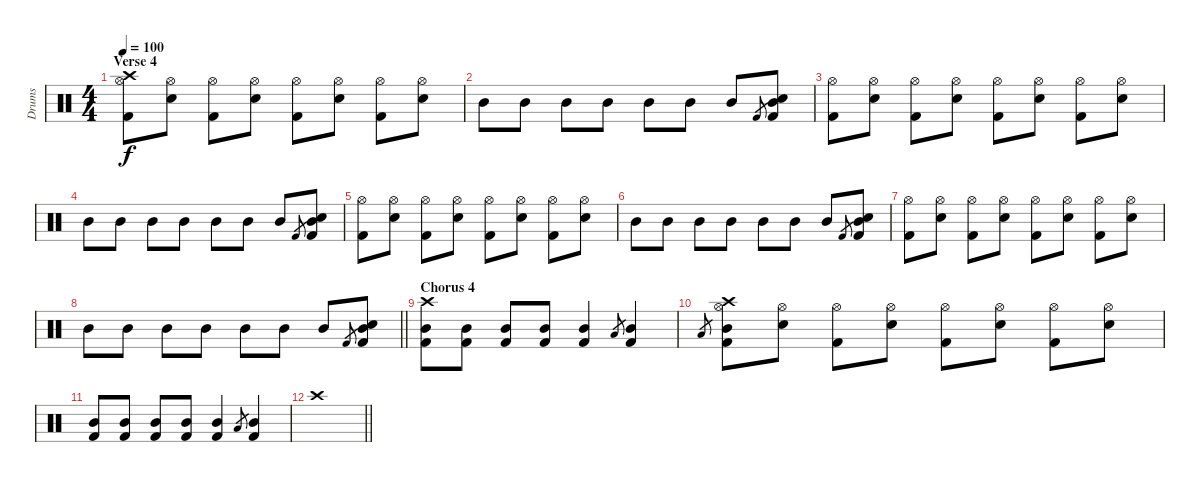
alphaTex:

\track ("Drums" "Drums") {instrument percussion}
\staff {score}
\articulation defaults
\ts (4 4)
\section ("" "Verse 4")
\tempo 100
\clef neutral
\ks c
("Crash high (hit)" "Hi-Hat (open)" "Kick (hit) 2").8{dy f} ("Hi-Hat (open)" "Snare (hit) 2").8 ("Hi-Hat (open)" "Kick (hit) 2").8 ("Hi-Hat (open)" "Snare (hit) 2").8 ("Hi-Hat (open)" "Kick (hit) 2").8 ("Hi-Hat (open)" "Snare (hit) 2").8 ("Hi-Hat (open)" "Kick (hit) 2").8 ("Hi-Hat (open)" "Snare (hit) 2").8 |
"Mid Tom (hit)".8 "Mid Tom (hit)".8 "Mid Tom (hit)".8 "Mid Tom (hit)".8 "Mid Tom (hit)".8 "Mid Tom (hit)".8 "Mid Tom (hit)".8 "Kick (hit) 2".8{gr} ("Mid Tom (hit)" "Snare (hit) 2" "Kick (hit) 2").8 |
("Hi-Hat (open)" "Kick (hit) 2").8 ("Hi-Hat (open)" "Snare (hit) 2").8 ("Hi-Hat (open)" "Kick (hit) 2").8 ("Hi-Hat (open)" "Snare (hit) 2").8 ("Hi-Hat (open)" "Kick (hit) 2").8 ("Hi-Hat (open)" "Snare (hit) 2").8 ("Hi-Hat (open)" "Kick (hit) 2").8 ("Hi-Hat (open)" "Snare (hit) 2").8 |
"Mid Tom (hit)".8 "Mid Tom (hit)".8 "Mid Tom (hit)".8 "Mid Tom (hit)".8 "Mid Tom (hit)".8 "Mid Tom (hit)".8 "Mid Tom (hit)".8 "Kick (hit) 2".8{gr} ("Mid Tom (hit)" "Snare (hit) 2" "Kick (hit) 2").8 |
("Hi-Hat (open)" "Kick (hit) 2").8 ("Hi-Hat (open)" "Snare (hit) 2").8 ("Hi-Hat (open)" "Kick (hit) 2").8 ("Hi-Hat (open)" "Snare (hit) 2").8 ("Hi-Hat (open)" "Kick (hit) 2").8 ("Hi-Hat (open)" "Snare (hit) 2").8 ("Hi-Hat (open)" "Kick (hit) 2").8 ("Hi-Hat (open)" "Snare (hit) 2").8 |
"Mid Tom (hit)".8 "Mid Tom (hit)".8 "Mid Tom (hit)".8 "Mid Tom (hit)".8 "Mid Tom (hit)".8 "Mid Tom (hit)".8 "Mid Tom (hit)".8 "Kick (hit) 2".8{gr} ("Mid Tom (hit)" "Snare (hit) 2" "Kick (hit) 2").8 |
("Hi-Hat (open)" "Kick (hit) 2").8 ("Hi-Hat (open)" "Snare (hit) 2").8 ("Hi-Hat (open)" "Kick (hit) 2").8 ("Hi-Hat (open)" "Snare (hit) 2").8 ("Hi-Hat (open)" "Kick (hit) 2").8 ("Hi-Hat (open)" "Snare (hit) 2").8 ("Hi-Hat (open)" "Kick (hit) 2").8 ("Hi-Hat (open)" "Snare (hit) 2").8 |
\barLineRight lightlight "Mid Tom (hit)".8 "Mid Tom (hit)".8 "Mid Tom (hit)".8 "Mid Tom (hit)".8 "Mid Tom (hit)".8 "Mid Tom (hit)".8 "Mid Tom (hit)".8 "Kick (hit) 2".8{gr}
("Mid Tom (hit)" "Snare (hit) 2" "Kick (hit) 2").8 |
\section ("" "Chorus 4")
("Crash high (hit)" "Mid Tom (hit)" "Kick (hit) 2").8 ("Mid Tom (hit)" "Kick (hit) 2").8 ("Mid Tom (hit)" "Kick (hit) 2").8 ("Mid Tom (hit)" "Kick (hit) 2").8 ("Mid Tom (hit)" "Kick (hit) 2").4 "Low Floor Tom (hit)".8{gr} ("Mid Tom (hit)" "Kick (hit) 2").4 |
"Low Floor Tom (hit)".8{gr} ("Crash high (hit)" "Hi-Hat (open)" "Mid Tom (hit)" "Kick (hit) 2").8 ("Hi-Hat (open)" "Snare (hit) 2").8 ("Hi-Hat (open)" "Kick (hit) 2").8 ("Hi-Hat (open)" "Snare (hit) 2").8 ("Hi-Hat (open)" "Kick (hit) 2").8 ("Hi-Hat (open)" "Snare (hit) 2").8 ("Hi-Hat (open)" "Kick (hit) 2").8 ("Hi-Hat (open)" "Snare (hit) 2").8 |
("Mid Tom (hit)" "Kick (hit) 2").8 ("Mid Tom (hit)" "Kick (hit) 2").8 ("Mid Tom (hit)" "Kick (hit) 2").8 ("Mid Tom (hit)" "Kick (hit) 2").8 ("Mid Tom (hit)" "Kick (hit) 2").4 "Low Floor Tom (hit)".8{gr} ("Mid Tom (hit)" "Kick (hit) 2").4 |
\barLineRight lightlight "Crash high (hit)".1
